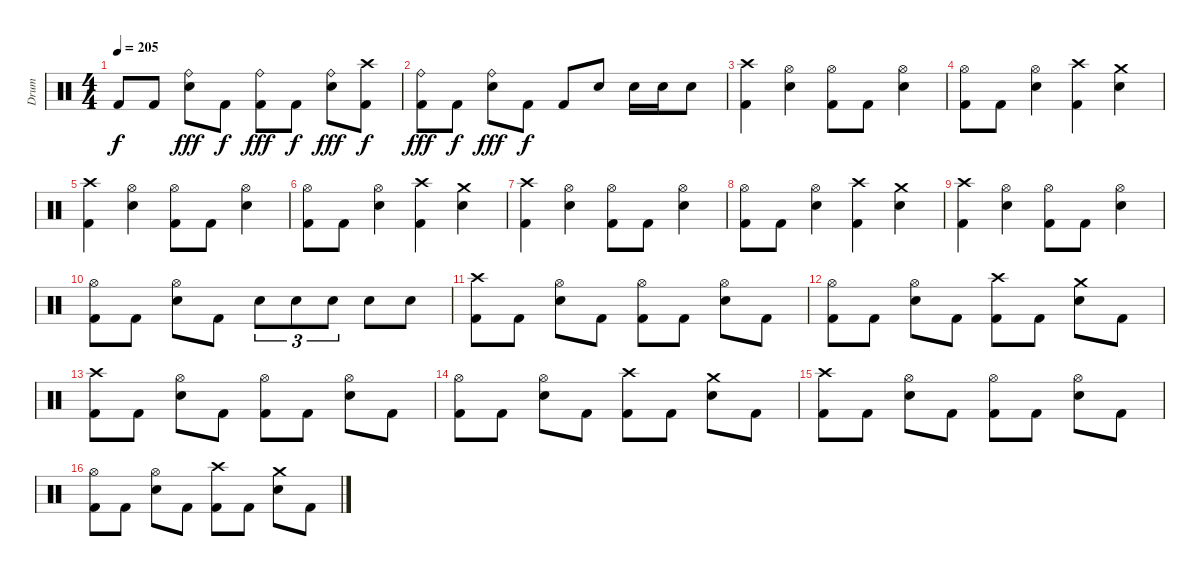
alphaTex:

\track ("Drum" "Drum") {instrument percussion}
\staff {score}
\articulation defaults
\ts (4 4)
\tempo 205
\clef neutral
\ks c "Kick (hit) 2".8{dy f} "Kick (hit) 2".8
("Electric Snare (hit)" "Ride (bell)").8{dy fff} "Kick (hit) 2".8{dy f} ("Kick (hit) 2" "Ride (bell)").8{dy fff} "Kick (hit) 2".8{dy f} ("Electric Snare (hit)" "Ride (bell)").8{dy fff} ("Kick (hit) 2" "Crash high (hit)").8{dy f} |
("Kick (hit) 2" "Ride (bell)").8{dy fff} "Kick (hit) 2".8{dy f} ("Electric Snare (hit)" "Ride (bell)").8{dy fff} "Kick (hit) 2".8{dy f} "Kick (hit) 2".8 "Electric Snare (hit)".8 "Electric Snare (hit)".16 "Electric Snare (hit)".16 "Electric Snare (hit)".8 |
("Kick (hit) 2" "Crash high (hit)").4 ("Electric Snare (hit)" "Hi-Hat (open)").4 ("Kick (hit) 2" "Hi-Hat (open)").8 "Kick (hit) 2".8 ("Electric Snare (hit)" "Hi-Hat (open)").4 |
("Kick (hit) 2" "Hi-Hat (open)").8 "Kick (hit) 2".8 ("Electric Snare (hit)" "Hi-Hat (open)").4 ("Kick (hit) 2" "Crash high (hit)").4 ("Electric Snare (hit)" "Crash medium (hit)").4 |
("Kick (hit) 2" "Crash high (hit)").4 ("Electric Snare (hit)" "Hi-Hat (open)").4 ("Kick (hit) 2" "Hi-Hat (open)").8 "Kick (hit) 2".8 ("Electric Snare (hit)" "Hi-Hat (open)").4 |
("Kick (hit) 2" "Hi-Hat (open)").8 "Kick (hit) 2".8 ("Electric Snare (hit)" "Hi-Hat (open)").4 ("Kick (hit) 2" "Crash high (hit)").4 ("Electric Snare (hit)" "Crash medium (hit)").4 |
("Kick (hit) 2" "Crash high (hit)").4 ("Electric Snare (hit)" "Hi-Hat (open)").4 ("Kick (hit) 2" "Hi-Hat (open)").8 "Kick (hit) 2".8 ("Electric Snare (hit)" "Hi-Hat (open)").4 |
("Kick (hit) 2" "Hi-Hat (open)").8 "Kick (hit) 2".8 ("Electric Snare (hit)" "Hi-Hat (open)").4 ("Kick (hit) 2" "Crash high (hit)").4 ("Electric Snare (hit)" "Crash medium (hit)").4 |
("Kick (hit) 2" "Crash high (hit)").4 ("Electric Snare (hit)" "Hi-Hat (open)").4 ("Kick (hit) 2" "Hi-Hat (open)").8 "Kick (hit) 2".8 ("Electric Snare (hit)" "Hi-Hat (open)").4 |
("Kick (hit) 2" "Hi-Hat (open)").8 "Kick (hit) 2".8 ("Electric Snare (hit)" "Hi-Hat (open)").8 "Kick (hit) 2".8 "Electric Snare (hit)".8{tu (3 2)} "Electric Snare (hit)".8{tu (3 2)} "Electric Snare (hit)".8{tu (3 2)} "Electric Snare (hit)".8 "Electric Snare (hit)".8 |
("Kick (hit) 2" "Crash high (hit)").8 "Kick (hit) 2".8 ("Electric Snare (hit)" "Hi-Hat (open)").8 "Kick (hit) 2".8 ("Kick (hit) 2" "Hi-Hat (open)").8 "Kick (hit) 2".8 ("Electric Snare (hit)" "Hi-Hat (open)").8 "Kick (hit) 2".8 |
("Kick (hit) 2" "Hi-Hat (open)").8 "Kick (hit) 2".8 ("Electric Snare (hit)" "Hi-Hat (open)").8 "Kick (hit) 2".8 ("Kick (hit) 2" "Crash high (hit)").8 "Kick (hit) 2".8 ("Electric Snare (hit)" "Crash medium (hit)").8 "Kick (hit) 2".8 |
("Kick (hit) 2" "Crash high (hit)").8 "Kick (hit) 2".8 ("Electric Snare (hit)" "Hi-Hat (open)").8 "Kick (hit) 2".8 ("Kick (hit) 2" "Hi-Hat (open)").8 "Kick (hit) 2".8 ("Electric Snare (hit)" "Hi-Hat (open)").8 "Kick (hit) 2".8 |
("Kick (hit) 2" "Hi-Hat (open)").8 "Kick (hit) 2".8 ("Electric Snare (hit)" "Hi-Hat (open)").8 "Kick (hit) 2".8 ("Kick (hit) 2" "Crash high (hit)").8 "Kick (hit) 2".8 ("Electric Snare (hit)" "Crash medium (hit)").8 "Kick (hit) 2".8 |
("Kick (hit) 2" "Crash high (hit)").8 "Kick (hit) 2".8 ("Electric Snare (hit)" "Hi-Hat (open)").8 "Kick (hit) 2".8 ("Kick (hit) 2" "Hi-Hat (open)").8 "Kick (hit) 2".8 ("Electric Snare (hit)" "Hi-Hat (open)").8 "Kick (hit) 2".8 |
("Kick (hit) 2" "Hi-Hat (open)").8 "Kick (hit) 2".8 ("Electric Snare (hit)" "Hi-Hat (open)").8 "Kick (hit) 2".8 ("Kick (hit) 2" "Crash high (hit)").8 "Kick (hit) 2".8 ("Electric Snare (hit)" "Crash medium (hit)").8 "Kick (hit) 2".8
